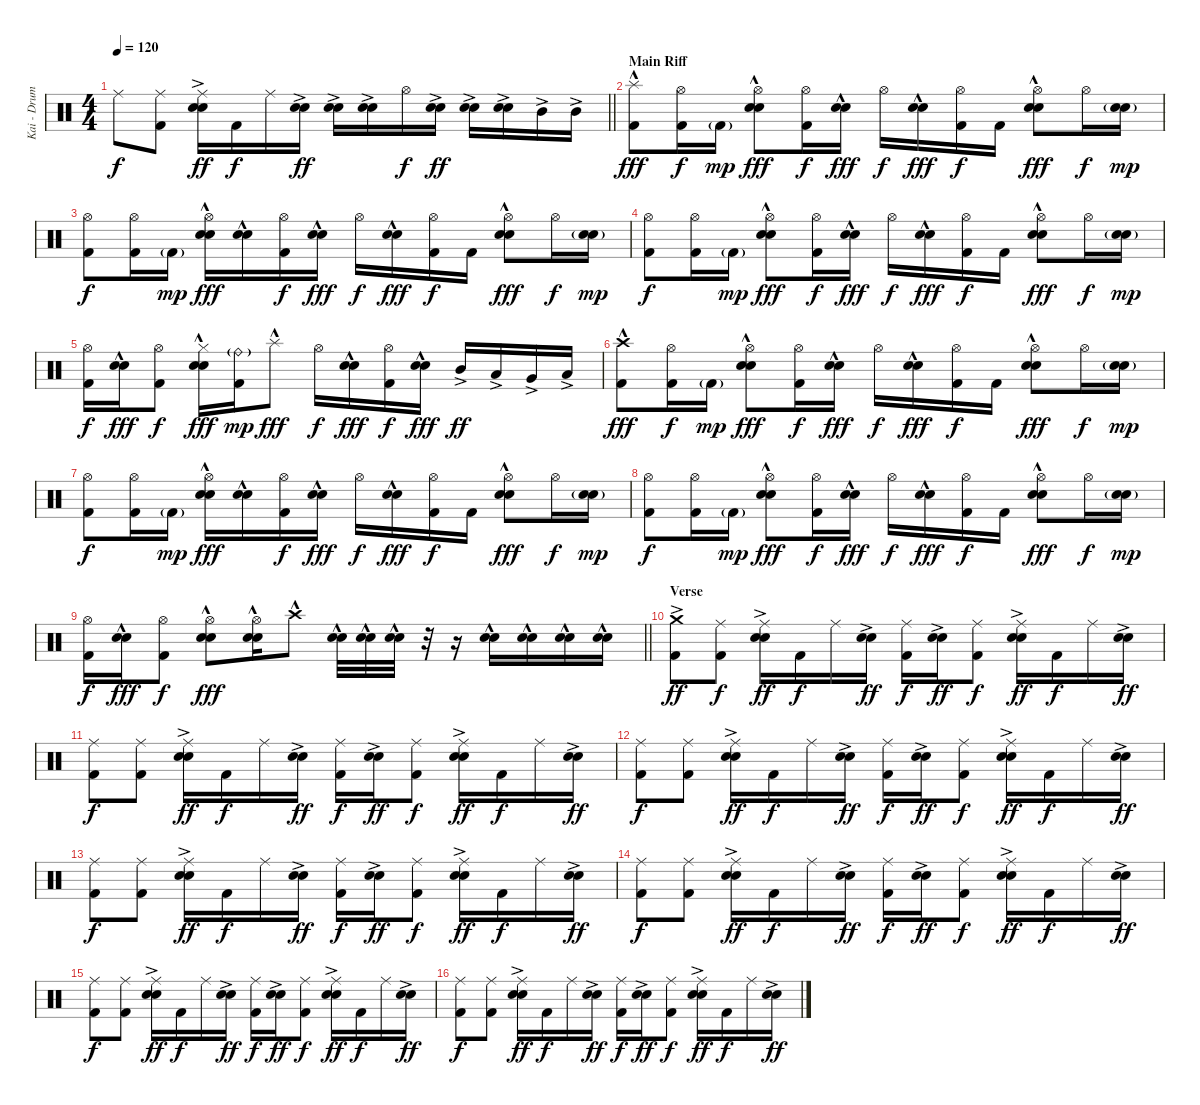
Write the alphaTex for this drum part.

\track ("Kai - Drums" "Kai - Drum") {instrument percussion}
\staff {score}
\articulation defaults
\ts (4 4)
\tempo 120
\clef neutral
\barLineRight lightlight
\ks c "Ride (middle)".8{dy f}
("Ride (middle)" "Kick (hit) 2").8 ("Ride (middle)" "Electric Snare (hit)"{ac} "Snare (hit) 2"{ac}).16{dy ff} "Kick (hit) 2".16{dy f} "Ride (middle)".16 ("Electric Snare (hit)"{ac} "Snare (hit) 2"{ac}).16{dy ff} ("Electric Snare (hit)"{ac} "Snare (hit) 2"{ac}).16 ("Electric Snare (hit)"{ac} "Snare (hit) 2"{ac}).16 "Hi-Hat (open)".16{dy f} ("Electric Snare (hit)"{ac} "Snare (hit) 2"{ac}).16{dy ff} ("Electric Snare (hit)"{ac} "Snare (hit) 2"{ac}).16 ("Electric Snare (hit)"{ac} "Snare (hit) 2"{ac}).16 "Mid Tom (hit)"{ac}.16 "Mid Tom (hit)"{ac}.16 |
\section ("" "Main Riff")
("Splash (hit)"{hac} "Kick (hit) 2").8{dy fff} ("Hi-Hat (open)" "Kick (hit) 2").16{dy f} "Kick (hit) 2"{g}.16{dy mp} ("Hi-Hat (open)" "Electric Snare (hit)"{hac} "Snare (hit) 2").8{dy fff} ("Hi-Hat (open)" "Kick (hit) 2").16{dy f} ("Electric Snare (hit)"{hac} "Snare (hit) 2").16{dy fff} "Hi-Hat (open)".16{dy f} ("Electric Snare (hit)"{hac} "Snare (hit) 2").16{dy fff} ("Hi-Hat (open)" "Kick (hit) 2").16{dy f} "Kick (hit) 2".16 ("Hi-Hat (open)" "Electric Snare (hit)"{hac} "Snare (hit) 2").8{dy fff} "Hi-Hat (open)".16{dy f} ("Electric Snare (hit)"{g} "Snare (hit) 2"{g}).16{dy mp} |
("Hi-Hat (open)" "Kick (hit) 2").8{dy f} ("Hi-Hat (open)" "Kick (hit) 2").16 "Kick (hit) 2"{g}.16{dy mp} ("Hi-Hat (open)" "Electric Snare (hit)"{hac} "Snare (hit) 2").16{dy fff} ("Electric Snare (hit)"{hac} "Snare (hit) 2").16 ("Hi-Hat (open)" "Kick (hit) 2").16{dy f} ("Electric Snare (hit)"{hac} "Snare (hit) 2").16{dy fff} "Hi-Hat (open)".16{dy f} ("Electric Snare (hit)"{hac} "Snare (hit) 2").16{dy fff} ("Hi-Hat (open)" "Kick (hit) 2").16{dy f} "Kick (hit) 2".16 ("Hi-Hat (open)" "Electric Snare (hit)"{hac} "Snare (hit) 2").8{dy fff} "Hi-Hat (open)".16{dy f} ("Electric Snare (hit)"{g} "Snare (hit) 2"{g}).16{dy mp} |
("Hi-Hat (open)" "Kick (hit) 2").8{dy f} ("Hi-Hat (open)" "Kick (hit) 2").16 "Kick (hit) 2"{g}.16{dy mp} ("Hi-Hat (open)" "Electric Snare (hit)"{hac} "Snare (hit) 2").8{dy fff} ("Hi-Hat (open)" "Kick (hit) 2").16{dy f} ("Electric Snare (hit)"{hac} "Snare (hit) 2").16{dy fff} "Hi-Hat (open)".16{dy f} ("Electric Snare (hit)"{hac} "Snare (hit) 2").16{dy fff} ("Hi-Hat (open)" "Kick (hit) 2").16{dy f} "Kick (hit) 2".16 ("Hi-Hat (open)" "Electric Snare (hit)"{hac} "Snare (hit) 2").8{dy fff} "Hi-Hat (open)".16{dy f} ("Electric Snare (hit)"{g} "Snare (hit) 2"{g}).16{dy mp} |
("Hi-Hat (open)" "Kick (hit) 2").16{dy f} ("Electric Snare (hit)"{hac} "Snare (hit) 2").16{dy fff} ("Hi-Hat (open)" "Kick (hit) 2").8{dy f} ("Hi-Hat (closed)" "Electric Snare (hit)"{hac} "Snare (hit) 2").16{dy fff} ("Ride (bell)"{g} "Kick (hit) 2").16{dy mp} "Splash (hit)"{hac}.8{dy fff} "Hi-Hat (open)".16{dy f} ("Electric Snare (hit)"{hac} "Snare (hit) 2").16{dy fff} ("Hi-Hat (open)" "Kick (hit) 2").16{dy f} ("Electric Snare (hit)"{hac} "Snare (hit) 2").16{dy fff} "Mid Tom (hit)"{ac}.16{dy ff} "Low Tom (hit)"{ac}.16 "Very Low Tom (hit)"{ac}.16 "Low Floor Tom (hit)"{ac}.16 |
("Crash high (hit)"{hac} "Kick (hit) 2").8{dy fff} ("Hi-Hat (open)" "Kick (hit) 2").16{dy f} "Kick (hit) 2"{g}.16{dy mp} ("Hi-Hat (open)" "Electric Snare (hit)"{hac} "Snare (hit) 2").8{dy fff} ("Hi-Hat (open)" "Kick (hit) 2").16{dy f} ("Electric Snare (hit)"{hac} "Snare (hit) 2").16{dy fff} "Hi-Hat (open)".16{dy f} ("Electric Snare (hit)"{hac} "Snare (hit) 2").16{dy fff} ("Hi-Hat (open)" "Kick (hit) 2").16{dy f} "Kick (hit) 2".16 ("Hi-Hat (open)" "Electric Snare (hit)"{hac} "Snare (hit) 2").8{dy fff} "Hi-Hat (open)".16{dy f} ("Electric Snare (hit)"{g} "Snare (hit) 2"{g}).16{dy mp} |
("Hi-Hat (open)" "Kick (hit) 2").8{dy f} ("Hi-Hat (open)" "Kick (hit) 2").16 "Kick (hit) 2"{g}.16{dy mp} ("Hi-Hat (open)" "Electric Snare (hit)"{hac} "Snare (hit) 2").16{dy fff} ("Electric Snare (hit)"{hac} "Snare (hit) 2").16 ("Hi-Hat (open)" "Kick (hit) 2").16{dy f} ("Electric Snare (hit)"{hac} "Snare (hit) 2").16{dy fff} "Hi-Hat (open)".16{dy f} ("Electric Snare (hit)"{hac} "Snare (hit) 2").16{dy fff} ("Hi-Hat (open)" "Kick (hit) 2").16{dy f} "Kick (hit) 2".16 ("Hi-Hat (open)" "Electric Snare (hit)"{hac} "Snare (hit) 2").8{dy fff} "Hi-Hat (open)".16{dy f} ("Electric Snare (hit)"{g} "Snare (hit) 2"{g}).16{dy mp} |
("Hi-Hat (open)" "Kick (hit) 2").8{dy f} ("Hi-Hat (open)" "Kick (hit) 2").16 "Kick (hit) 2"{g}.16{dy mp} ("Hi-Hat (open)" "Electric Snare (hit)"{hac} "Snare (hit) 2").8{dy fff} ("Hi-Hat (open)" "Kick (hit) 2").16{dy f} ("Electric Snare (hit)"{hac} "Snare (hit) 2").16{dy fff} "Hi-Hat (open)".16{dy f} ("Electric Snare (hit)"{hac} "Snare (hit) 2").16{dy fff} ("Hi-Hat (open)" "Kick (hit) 2").16{dy f} "Kick (hit) 2".16 ("Hi-Hat (open)" "Electric Snare (hit)"{hac} "Snare (hit) 2").8{dy fff} "Hi-Hat (open)".16{dy f} ("Electric Snare (hit)"{g} "Snare (hit) 2"{g}).16{dy mp} |
\barLineRight lightlight
("Hi-Hat (open)" "Kick (hit) 2").16{dy f} ("Electric Snare (hit)"{hac} "Snare (hit) 2").16{dy fff} ("Hi-Hat (open)" "Kick (hit) 2").8{dy f} ("Hi-Hat (open)" "Electric Snare (hit)"{hac} "Snare (hit) 2").8{dy fff} ("Hi-Hat (open)" "Electric Snare (hit)"{hac} "Snare (hit) 2").16 "Crash high (hit)"{hac}.8 ("Electric Snare (hit)"{hac} "Snare (hit) 2").32 ("Electric Snare (hit)"{hac} "Snare (hit) 2").32 ("Electric Snare (hit)"{hac} "Snare (hit) 2").32 r.32 r.16 ("Electric Snare (hit)"{hac} "Snare (hit) 2").16 ("Electric Snare (hit)"{hac} "Snare (hit) 2").16 ("Electric Snare (hit)"{hac} "Snare (hit) 2").16 ("Electric Snare (hit)"{hac} "Snare (hit) 2").16 |
\section ("" "Verse")
("Crash medium (hit)"{ac} "Kick (hit) 2").8{dy ff} ("Ride (middle)" "Kick (hit) 2").8{dy f} ("Ride (middle)" "Electric Snare (hit)"{ac} "Snare (hit) 2").16{dy ff} "Kick (hit) 2".16{dy f} "Ride (middle)".16 ("Electric Snare (hit)"{ac} "Snare (hit) 2").16{dy ff} ("Ride (middle)" "Kick (hit) 2").16{dy f} ("Electric Snare (hit)"{ac} "Snare (hit) 2").16{dy ff} ("Ride (middle)" "Kick (hit) 2").8{dy f} ("Ride (middle)" "Electric Snare (hit)"{ac} "Snare (hit) 2").16{dy ff} "Kick (hit) 2".16{dy f} "Ride (middle)".16 ("Electric Snare (hit)"{ac} "Snare (hit) 2").16{dy ff} |
("Ride (middle)" "Kick (hit) 2").8{dy f} ("Ride (middle)" "Kick (hit) 2").8 ("Ride (middle)" "Electric Snare (hit)"{ac} "Snare (hit) 2").16{dy ff} "Kick (hit) 2".16{dy f} "Ride (middle)".16 ("Electric Snare (hit)"{ac} "Snare (hit) 2").16{dy ff} ("Ride (middle)" "Kick (hit) 2").16{dy f} ("Electric Snare (hit)"{ac} "Snare (hit) 2").16{dy ff} ("Ride (middle)" "Kick (hit) 2").8{dy f} ("Ride (middle)" "Electric Snare (hit)"{ac} "Snare (hit) 2").16{dy ff} "Kick (hit) 2".16{dy f} "Ride (middle)".16 ("Electric Snare (hit)"{ac} "Snare (hit) 2").16{dy ff} |
("Ride (middle)" "Kick (hit) 2").8{dy f} ("Ride (middle)" "Kick (hit) 2").8 ("Ride (middle)" "Electric Snare (hit)"{ac} "Snare (hit) 2").16{dy ff} "Kick (hit) 2".16{dy f} "Ride (middle)".16 ("Electric Snare (hit)"{ac} "Snare (hit) 2").16{dy ff} ("Ride (middle)" "Kick (hit) 2").16{dy f} ("Electric Snare (hit)"{ac} "Snare (hit) 2").16{dy ff} ("Ride (middle)" "Kick (hit) 2").8{dy f} ("Ride (middle)" "Electric Snare (hit)"{ac} "Snare (hit) 2").16{dy ff} "Kick (hit) 2".16{dy f} "Ride (middle)".16 ("Electric Snare (hit)"{ac} "Snare (hit) 2").16{dy ff} |
("Ride (middle)" "Kick (hit) 2").8{dy f} ("Ride (middle)" "Kick (hit) 2").8 ("Ride (middle)" "Electric Snare (hit)"{ac} "Snare (hit) 2").16{dy ff} "Kick (hit) 2".16{dy f} "Ride (middle)".16 ("Electric Snare (hit)"{ac} "Snare (hit) 2").16{dy ff} ("Ride (middle)" "Kick (hit) 2").16{dy f} ("Electric Snare (hit)"{ac} "Snare (hit) 2").16{dy ff} ("Ride (middle)" "Kick (hit) 2").8{dy f} ("Ride (middle)" "Electric Snare (hit)"{ac} "Snare (hit) 2").16{dy ff} "Kick (hit) 2".16{dy f} "Ride (middle)".16 ("Electric Snare (hit)"{ac} "Snare (hit) 2").16{dy ff} |
("Ride (middle)" "Kick (hit) 2").8{dy f} ("Ride (middle)" "Kick (hit) 2").8 ("Ride (middle)" "Electric Snare (hit)"{ac} "Snare (hit) 2").16{dy ff} "Kick (hit) 2".16{dy f} "Ride (middle)".16 ("Electric Snare (hit)"{ac} "Snare (hit) 2").16{dy ff} ("Ride (middle)" "Kick (hit) 2").16{dy f} ("Electric Snare (hit)"{ac} "Snare (hit) 2").16{dy ff} ("Ride (middle)" "Kick (hit) 2").8{dy f} ("Ride (middle)" "Electric Snare (hit)"{ac} "Snare (hit) 2").16{dy ff} "Kick (hit) 2".16{dy f} "Ride (middle)".16 ("Electric Snare (hit)"{ac} "Snare (hit) 2").16{dy ff} |
("Ride (middle)" "Kick (hit) 2").8{dy f} ("Ride (middle)" "Kick (hit) 2").8 ("Ride (middle)" "Electric Snare (hit)"{ac} "Snare (hit) 2").16{dy ff} "Kick (hit) 2".16{dy f} "Ride (middle)".16 ("Electric Snare (hit)"{ac} "Snare (hit) 2").16{dy ff} ("Ride (middle)" "Kick (hit) 2").16{dy f} ("Electric Snare (hit)"{ac} "Snare (hit) 2").16{dy ff} ("Ride (middle)" "Kick (hit) 2").8{dy f} ("Ride (middle)" "Electric Snare (hit)"{ac} "Snare (hit) 2").16{dy ff} "Kick (hit) 2".16{dy f} "Ride (middle)".16 ("Electric Snare (hit)"{ac} "Snare (hit) 2").16{dy ff} |
("Ride (middle)" "Kick (hit) 2").8{dy f} ("Ride (middle)" "Kick (hit) 2").8 ("Ride (middle)" "Electric Snare (hit)"{ac} "Snare (hit) 2").16{dy ff} "Kick (hit) 2".16{dy f} "Ride (middle)".16 ("Electric Snare (hit)"{ac} "Snare (hit) 2").16{dy ff} ("Ride (middle)" "Kick (hit) 2").16{dy f} ("Electric Snare (hit)"{ac} "Snare (hit) 2").16{dy ff} ("Ride (middle)" "Kick (hit) 2").8{dy f} ("Ride (middle)" "Electric Snare (hit)"{ac} "Snare (hit) 2").16{dy ff} "Kick (hit) 2".16{dy f} "Ride (middle)".16 ("Electric Snare (hit)"{ac} "Snare (hit) 2").16{dy ff}
